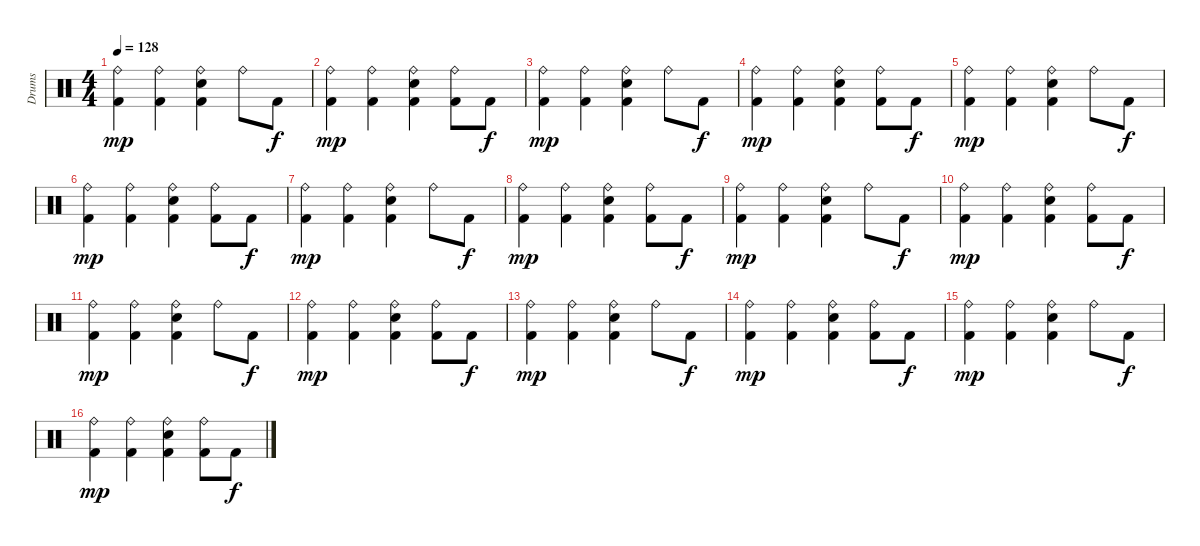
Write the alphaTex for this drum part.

\track ("Drums" "Drums") {instrument percussion}
\staff {score}
\articulation defaults
\ts (4 4)
\tempo 128
\clef neutral
\ks c
("Ride (bell)" "Kick (hit) 2").4{dy mp} ("Ride (bell)" "Kick (hit) 2").4 ("Ride (bell)" "Electric Snare (hit)" "Kick (hit) 2").4 "Ride (bell)".8 "Kick (hit) 2".8{dy f} |
("Ride (bell)" "Kick (hit) 2").4{dy mp} ("Ride (bell)" "Kick (hit) 2").4 ("Ride (bell)" "Electric Snare (hit)" "Kick (hit) 2").4 ("Ride (bell)" "Kick (hit) 2").8 "Kick (hit) 2".8{dy f} |
("Ride (bell)" "Kick (hit) 2").4{dy mp} ("Ride (bell)" "Kick (hit) 2").4 ("Ride (bell)" "Electric Snare (hit)" "Kick (hit) 2").4 "Ride (bell)".8 "Kick (hit) 2".8{dy f} |
("Ride (bell)" "Kick (hit) 2").4{dy mp} ("Ride (bell)" "Kick (hit) 2").4 ("Ride (bell)" "Electric Snare (hit)" "Kick (hit) 2").4 ("Ride (bell)" "Kick (hit) 2").8 "Kick (hit) 2".8{dy f} |
("Ride (bell)" "Kick (hit) 2").4{dy mp} ("Ride (bell)" "Kick (hit) 2").4 ("Ride (bell)" "Electric Snare (hit)" "Kick (hit) 2").4 "Ride (bell)".8 "Kick (hit) 2".8{dy f} |
("Ride (bell)" "Kick (hit) 2").4{dy mp} ("Ride (bell)" "Kick (hit) 2").4 ("Ride (bell)" "Electric Snare (hit)" "Kick (hit) 2").4 ("Ride (bell)" "Kick (hit) 2").8 "Kick (hit) 2".8{dy f} |
("Ride (bell)" "Kick (hit) 2").4{dy mp} ("Ride (bell)" "Kick (hit) 2").4 ("Ride (bell)" "Electric Snare (hit)" "Kick (hit) 2").4 "Ride (bell)".8 "Kick (hit) 2".8{dy f} |
("Ride (bell)" "Kick (hit) 2").4{dy mp} ("Ride (bell)" "Kick (hit) 2").4 ("Ride (bell)" "Electric Snare (hit)" "Kick (hit) 2").4 ("Ride (bell)" "Kick (hit) 2").8 "Kick (hit) 2".8{dy f} |
("Ride (bell)" "Kick (hit) 2").4{dy mp} ("Ride (bell)" "Kick (hit) 2").4 ("Ride (bell)" "Electric Snare (hit)" "Kick (hit) 2").4 "Ride (bell)".8 "Kick (hit) 2".8{dy f} |
("Ride (bell)" "Kick (hit) 2").4{dy mp} ("Ride (bell)" "Kick (hit) 2").4 ("Ride (bell)" "Electric Snare (hit)" "Kick (hit) 2").4 ("Ride (bell)" "Kick (hit) 2").8 "Kick (hit) 2".8{dy f} |
("Ride (bell)" "Kick (hit) 2").4{dy mp} ("Ride (bell)" "Kick (hit) 2").4 ("Ride (bell)" "Electric Snare (hit)" "Kick (hit) 2").4 "Ride (bell)".8 "Kick (hit) 2".8{dy f} |
("Ride (bell)" "Kick (hit) 2").4{dy mp} ("Ride (bell)" "Kick (hit) 2").4 ("Ride (bell)" "Electric Snare (hit)" "Kick (hit) 2").4 ("Ride (bell)" "Kick (hit) 2").8 "Kick (hit) 2".8{dy f} |
("Ride (bell)" "Kick (hit) 2").4{dy mp} ("Ride (bell)" "Kick (hit) 2").4 ("Ride (bell)" "Electric Snare (hit)" "Kick (hit) 2").4 "Ride (bell)".8 "Kick (hit) 2".8{dy f} |
("Ride (bell)" "Kick (hit) 2").4{dy mp} ("Ride (bell)" "Kick (hit) 2").4 ("Ride (bell)" "Electric Snare (hit)" "Kick (hit) 2").4 ("Ride (bell)" "Kick (hit) 2").8 "Kick (hit) 2".8{dy f} |
("Ride (bell)" "Kick (hit) 2").4{dy mp} ("Ride (bell)" "Kick (hit) 2").4 ("Ride (bell)" "Electric Snare (hit)" "Kick (hit) 2").4 "Ride (bell)".8 "Kick (hit) 2".8{dy f} |
("Ride (bell)" "Kick (hit) 2").4{dy mp} ("Ride (bell)" "Kick (hit) 2").4 ("Ride (bell)" "Electric Snare (hit)" "Kick (hit) 2").4 ("Ride (bell)" "Kick (hit) 2").8 "Kick (hit) 2".8{dy f}
